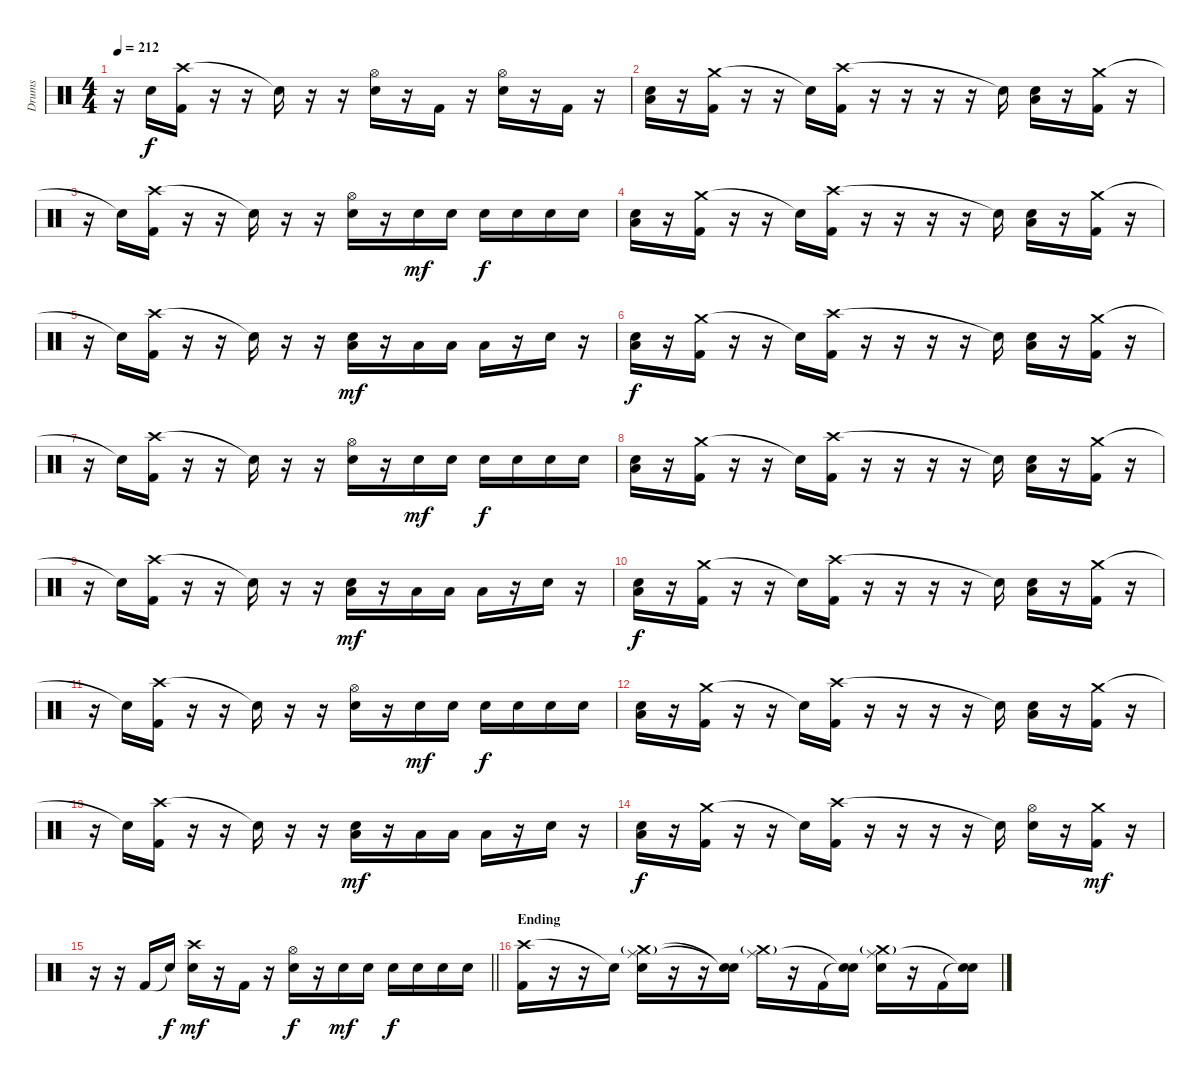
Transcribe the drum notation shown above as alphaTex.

\track ("Drums" "Drums") {instrument percussion}
\staff {score}
\articulation defaults
\ts (4 4)
\tempo 212
\clef neutral
\ks c
r.16{dy f} "Snare (hit)"{t}.16 ("Crash high (hit)" "Kick (hit) 2").16 r.16 r.16 "Snare (hit)"{t}.16 r.16 r.16 ("Hi-Hat (open)" "Electric Snare (hit)").16 r.16 "Kick (hit) 2".16 r.16 ("Hi-Hat (open)" "Electric Snare (hit)").16 r.16 "Kick (hit) 2".16 r.16 |
("Low Tom (hit)" "Electric Snare (hit)").16 r.16 ("Crash medium (hit)" "Kick (hit) 2").16 r.16 r.16 "Snare (hit)"{t}.16 ("Crash high (hit)" "Kick (hit) 2").16 r.16 r.16 r.16 r.16 "Snare (hit)"{t}.16 ("Low Tom (hit)" "Electric Snare (hit)").16 r.16 ("Crash medium (hit)" "Kick (hit) 2").16 r.16 |
r.16 "Snare (hit)"{t}.16 ("Crash high (hit)" "Kick (hit) 2").16 r.16 r.16 "Snare (hit)"{t}.16 r.16 r.16 ("Hi-Hat (open)" "Electric Snare (hit)").16 r.16 "Electric Snare (hit)".16{dy mf} "Electric Snare (hit)".16 "Electric Snare (hit)".16{dy f} "Electric Snare (hit)".16 "Electric Snare (hit)".16 "Electric Snare (hit)".16 |
("Low Tom (hit)" "Electric Snare (hit)").16 r.16 ("Crash medium (hit)" "Kick (hit) 2").16 r.16 r.16 "Snare (hit)"{t}.16 ("Crash high (hit)" "Kick (hit) 2").16 r.16 r.16 r.16 r.16 "Snare (hit)"{t}.16 ("Low Tom (hit)" "Electric Snare (hit)").16 r.16 ("Crash medium (hit)" "Kick (hit) 2").16 r.16 |
r.16 "Snare (hit)"{t}.16 ("Crash high (hit)" "Kick (hit) 2").16 r.16 r.16 "Snare (hit)"{t}.16 r.16 r.16 ("Low Tom (hit)" "Electric Snare (hit)").16{dy mf} r.16 "Low Tom (hit)".16 "Low Tom (hit)".16 "Low Floor Tom (hit)".16 r.16 "Electric Snare (hit)".16 r.16 |
("Low Tom (hit)" "Electric Snare (hit)").16{dy f} r.16 ("Crash medium (hit)" "Kick (hit) 2").16 r.16 r.16 "Snare (hit)"{t}.16 ("Crash high (hit)" "Kick (hit) 2").16 r.16 r.16 r.16 r.16 "Snare (hit)"{t}.16 ("Low Tom (hit)" "Electric Snare (hit)").16 r.16 ("Crash medium (hit)" "Kick (hit) 2").16 r.16 |
r.16 "Snare (hit)"{t}.16 ("Crash high (hit)" "Kick (hit) 2").16 r.16 r.16 "Snare (hit)"{t}.16 r.16 r.16 ("Hi-Hat (open)" "Electric Snare (hit)").16 r.16 "Electric Snare (hit)".16{dy mf} "Electric Snare (hit)".16 "Electric Snare (hit)".16{dy f} "Electric Snare (hit)".16 "Electric Snare (hit)".16 "Electric Snare (hit)".16 |
("Low Tom (hit)" "Electric Snare (hit)").16 r.16 ("Crash medium (hit)" "Kick (hit) 2").16 r.16 r.16 "Snare (hit)"{t}.16 ("Crash high (hit)" "Kick (hit) 2").16 r.16 r.16 r.16 r.16 "Snare (hit)"{t}.16 ("Low Tom (hit)" "Electric Snare (hit)").16 r.16 ("Crash medium (hit)" "Kick (hit) 2").16 r.16 |
r.16 "Snare (hit)"{t}.16 ("Crash high (hit)" "Kick (hit) 2").16 r.16 r.16 "Snare (hit)"{t}.16 r.16 r.16 ("Low Tom (hit)" "Electric Snare (hit)").16{dy mf} r.16 "Low Tom (hit)".16 "Low Tom (hit)".16 "Low Floor Tom (hit)".16 r.16 "Electric Snare (hit)".16 r.16 |
("Low Tom (hit)" "Electric Snare (hit)").16{dy f} r.16 ("Crash medium (hit)" "Kick (hit) 2").16 r.16 r.16 "Snare (hit)"{t}.16 ("Crash high (hit)" "Kick (hit) 2").16 r.16 r.16 r.16 r.16 "Snare (hit)"{t}.16 ("Low Tom (hit)" "Electric Snare (hit)").16 r.16 ("Crash medium (hit)" "Kick (hit) 2").16 r.16 |
r.16 "Snare (hit)"{t}.16 ("Crash high (hit)" "Kick (hit) 2").16 r.16 r.16 "Snare (hit)"{t}.16 r.16 r.16 ("Hi-Hat (open)" "Electric Snare (hit)").16 r.16 "Electric Snare (hit)".16{dy mf} "Electric Snare (hit)".16 "Electric Snare (hit)".16{dy f} "Electric Snare (hit)".16 "Electric Snare (hit)".16 "Electric Snare (hit)".16 |
("Low Tom (hit)" "Electric Snare (hit)").16 r.16 ("Crash medium (hit)" "Kick (hit) 2").16 r.16 r.16 "Snare (hit)"{t}.16 ("Crash high (hit)" "Kick (hit) 2").16 r.16 r.16 r.16 r.16 "Snare (hit)"{t}.16 ("Low Tom (hit)" "Electric Snare (hit)").16 r.16 ("Crash medium (hit)" "Kick (hit) 2").16 r.16 |
r.16 "Snare (hit)"{t}.16 ("Crash high (hit)" "Kick (hit) 2").16 r.16 r.16 "Snare (hit)"{t}.16 r.16 r.16 ("Low Tom (hit)" "Electric Snare (hit)").16{dy mf} r.16 "Low Tom (hit)".16 "Low Tom (hit)".16 "Low Floor Tom (hit)".16 r.16 "Electric Snare (hit)".16 r.16 |
("Low Tom (hit)" "Electric Snare (hit)").16{dy f} r.16 ("Crash medium (hit)" "Kick (hit) 2").16 r.16 r.16 "Snare (hit)"{t}.16 ("Crash high (hit)" "Kick (hit) 2").16 r.16 r.16 r.16 r.16 "Snare (hit)"{t}.16 ("Hi-Hat (open)" "Electric Snare (hit)").16 r.16 ("Crash medium (hit)" "Kick (hit) 2").16{dy mf} r.16 |
\barLineRight lightlight
r.16 r.16 "Kick (hit) 2".16 "Snare (hit)"{t}.16{dy f} ("Crash high (hit)" "Electric Snare (hit)").16{dy mf} r.16 "Kick (hit) 2".16 r.16 ("Hi-Hat (open)" "Electric Snare (hit)").16{dy f} r.16 "Electric Snare (hit)".16{dy mf} "Electric Snare (hit)".16 "Electric Snare (hit)".16{dy f} "Electric Snare (hit)".16 "Electric Snare (hit)".16 "Electric Snare (hit)".16 |
\section ("" "Ending")
("Crash high (hit)" "Kick (hit) 2").16 r.16 r.16 "Snare (hit)"{t}.16 ("Crash medium (hit)"{g} "Ride (middle)" "Electric Snare (hit)").16 r.16 r.16 ("Snare (hit)"{t} "Snare (hit)"{t}).16 ("Crash medium (hit)"{g} "Ride (middle)").16 r.16 "Kick (hit) 2".16 ("Snare (hit)"{t} "Snare (hit)"{t}).16 ("Crash medium (hit)"{g} "Ride (middle)" "Electric Snare (hit)").16 r.16 "Kick (hit) 2".16 ("Snare (hit)"{t} "Snare (hit)"{t}).16
